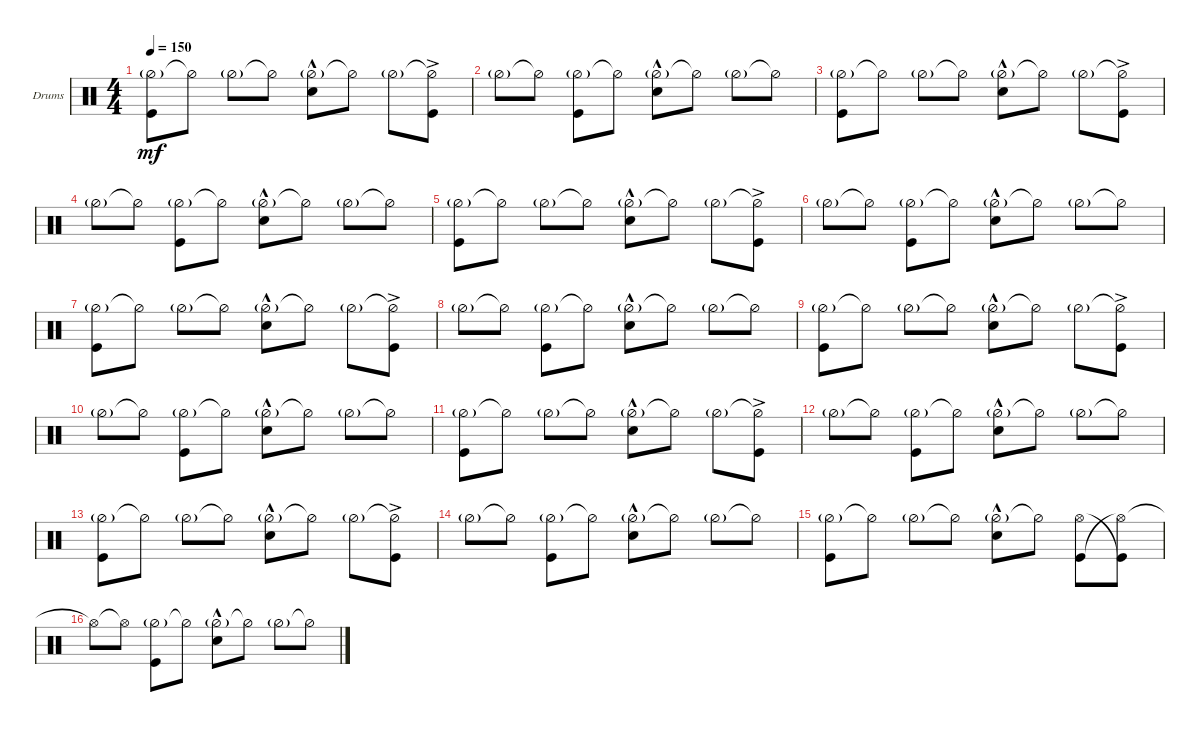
\bracketExtendMode groupsimilarinstruments
\firstSystemTrackNameOrientation horizontal
\otherSystemsTrackNameOrientation horizontal
\track ("Drumkit" "Drums") {instrument percussion}
\staff {score}
\articulation defaults
\ts (4 4)
\tempo 150
\clef neutral
\ks c
("Hi-Hat (half)"{g} "Kick (hit)").8{dy mf} "Hi-Hat (half)"{t}.8 "Hi-Hat (half)"{g}.8 "Hi-Hat (half)"{t}.8 ("Hi-Hat (half)"{g} "Snare (hit) 2"{hac}).8 "Hi-Hat (half)"{t}.8 "Hi-Hat (half)"{g}.8 ("Hi-Hat (half)"{t} "Kick (hit)"{ac}).8 |
"Hi-Hat (half)"{g}.8 "Hi-Hat (half)"{t}.8 ("Hi-Hat (half)"{g} "Kick (hit)").8 "Hi-Hat (half)"{t}.8 ("Hi-Hat (half)"{g} "Snare (hit) 2"{hac}).8 "Hi-Hat (half)"{t}.8 "Hi-Hat (half)"{g}.8 "Hi-Hat (half)"{t}.8 |
("Hi-Hat (half)"{g} "Kick (hit)").8 "Hi-Hat (half)"{t}.8 "Hi-Hat (half)"{g}.8 "Hi-Hat (half)"{t}.8 ("Hi-Hat (half)"{g} "Snare (hit) 2"{hac}).8 "Hi-Hat (half)"{t}.8 "Hi-Hat (half)"{g}.8 ("Hi-Hat (half)"{t} "Kick (hit)"{ac}).8 |
"Hi-Hat (half)"{g}.8 "Hi-Hat (half)"{t}.8 ("Hi-Hat (half)"{g} "Kick (hit)").8 "Hi-Hat (half)"{t}.8 ("Hi-Hat (half)"{g} "Snare (hit) 2"{hac}).8 "Hi-Hat (half)"{t}.8 "Hi-Hat (half)"{g}.8 "Hi-Hat (half)"{t}.8 |
("Hi-Hat (half)"{g} "Kick (hit)").8 "Hi-Hat (half)"{t}.8 "Hi-Hat (half)"{g}.8 "Hi-Hat (half)"{t}.8 ("Hi-Hat (half)"{g} "Snare (hit) 2"{hac}).8 "Hi-Hat (half)"{t}.8 "Hi-Hat (half)"{g}.8 ("Hi-Hat (half)"{t} "Kick (hit)"{ac}).8 |
"Hi-Hat (half)"{g}.8 "Hi-Hat (half)"{t}.8 ("Hi-Hat (half)"{g} "Kick (hit)").8 "Hi-Hat (half)"{t}.8 ("Hi-Hat (half)"{g} "Snare (hit) 2"{hac}).8 "Hi-Hat (half)"{t}.8 "Hi-Hat (half)"{g}.8 "Hi-Hat (half)"{t}.8 |
("Hi-Hat (half)"{g} "Kick (hit)").8 "Hi-Hat (half)"{t}.8 "Hi-Hat (half)"{g}.8 "Hi-Hat (half)"{t}.8 ("Hi-Hat (half)"{g} "Snare (hit) 2"{hac}).8 "Hi-Hat (half)"{t}.8 "Hi-Hat (half)"{g}.8 ("Hi-Hat (half)"{t} "Kick (hit)"{ac}).8 |
"Hi-Hat (half)"{g}.8 "Hi-Hat (half)"{t}.8 ("Hi-Hat (half)"{g} "Kick (hit)").8 "Hi-Hat (half)"{t}.8 ("Hi-Hat (half)"{g} "Snare (hit) 2"{hac}).8 "Hi-Hat (half)"{t}.8 "Hi-Hat (half)"{g}.8 "Hi-Hat (half)"{t}.8 |
("Hi-Hat (half)"{g} "Kick (hit)").8 "Hi-Hat (half)"{t}.8 "Hi-Hat (half)"{g}.8 "Hi-Hat (half)"{t}.8 ("Hi-Hat (half)"{g} "Snare (hit) 2"{hac}).8 "Hi-Hat (half)"{t}.8 "Hi-Hat (half)"{g}.8 ("Hi-Hat (half)"{t} "Kick (hit)"{ac}).8 |
"Hi-Hat (half)"{g}.8 "Hi-Hat (half)"{t}.8 ("Hi-Hat (half)"{g} "Kick (hit)").8 "Hi-Hat (half)"{t}.8 ("Hi-Hat (half)"{g} "Snare (hit) 2"{hac}).8 "Hi-Hat (half)"{t}.8 "Hi-Hat (half)"{g}.8 "Hi-Hat (half)"{t}.8 |
("Hi-Hat (half)"{g} "Kick (hit)").8 "Hi-Hat (half)"{t}.8 "Hi-Hat (half)"{g}.8 "Hi-Hat (half)"{t}.8 ("Hi-Hat (half)"{g} "Snare (hit) 2"{hac}).8 "Hi-Hat (half)"{t}.8 "Hi-Hat (half)"{g}.8 ("Hi-Hat (half)"{t} "Kick (hit)"{ac}).8 |
"Hi-Hat (half)"{g}.8 "Hi-Hat (half)"{t}.8 ("Hi-Hat (half)"{g} "Kick (hit)").8 "Hi-Hat (half)"{t}.8 ("Hi-Hat (half)"{g} "Snare (hit) 2"{hac}).8 "Hi-Hat (half)"{t}.8 "Hi-Hat (half)"{g}.8 "Hi-Hat (half)"{t}.8 |
("Hi-Hat (half)"{g} "Kick (hit)").8 "Hi-Hat (half)"{t}.8 "Hi-Hat (half)"{g}.8 "Hi-Hat (half)"{t}.8 ("Hi-Hat (half)"{g} "Snare (hit) 2"{hac}).8 "Hi-Hat (half)"{t}.8 "Hi-Hat (half)"{g}.8 ("Hi-Hat (half)"{t} "Kick (hit)"{ac}).8 |
"Hi-Hat (half)"{g}.8 "Hi-Hat (half)"{t}.8 ("Hi-Hat (half)"{g} "Kick (hit)").8 "Hi-Hat (half)"{t}.8 ("Hi-Hat (half)"{g} "Snare (hit) 2"{hac}).8 "Hi-Hat (half)"{t}.8 "Hi-Hat (half)"{g}.8 "Hi-Hat (half)"{t}.8 |
("Hi-Hat (half)"{g} "Kick (hit)").8 "Hi-Hat (half)"{t}.8 "Hi-Hat (half)"{g}.8 "Hi-Hat (half)"{t}.8 ("Hi-Hat (half)"{g} "Snare (hit) 2"{hac}).8 "Hi-Hat (half)"{t}.8 ("Kick (hit)" "Hi-Hat (open)").8 ("Hi-Hat (open)"{t} "Kick (hit)"{t}).8 |
"Hi-Hat (open)"{t}.8 "Hi-Hat (open)"{t}.8 ("Hi-Hat (half)"{g} "Kick (hit)").8 "Hi-Hat (half)"{t}.8 ("Hi-Hat (half)"{g} "Snare (hit) 2"{hac}).8 "Hi-Hat (half)"{t}.8 "Hi-Hat (half)"{g}.8 "Hi-Hat (half)"{t}.8
